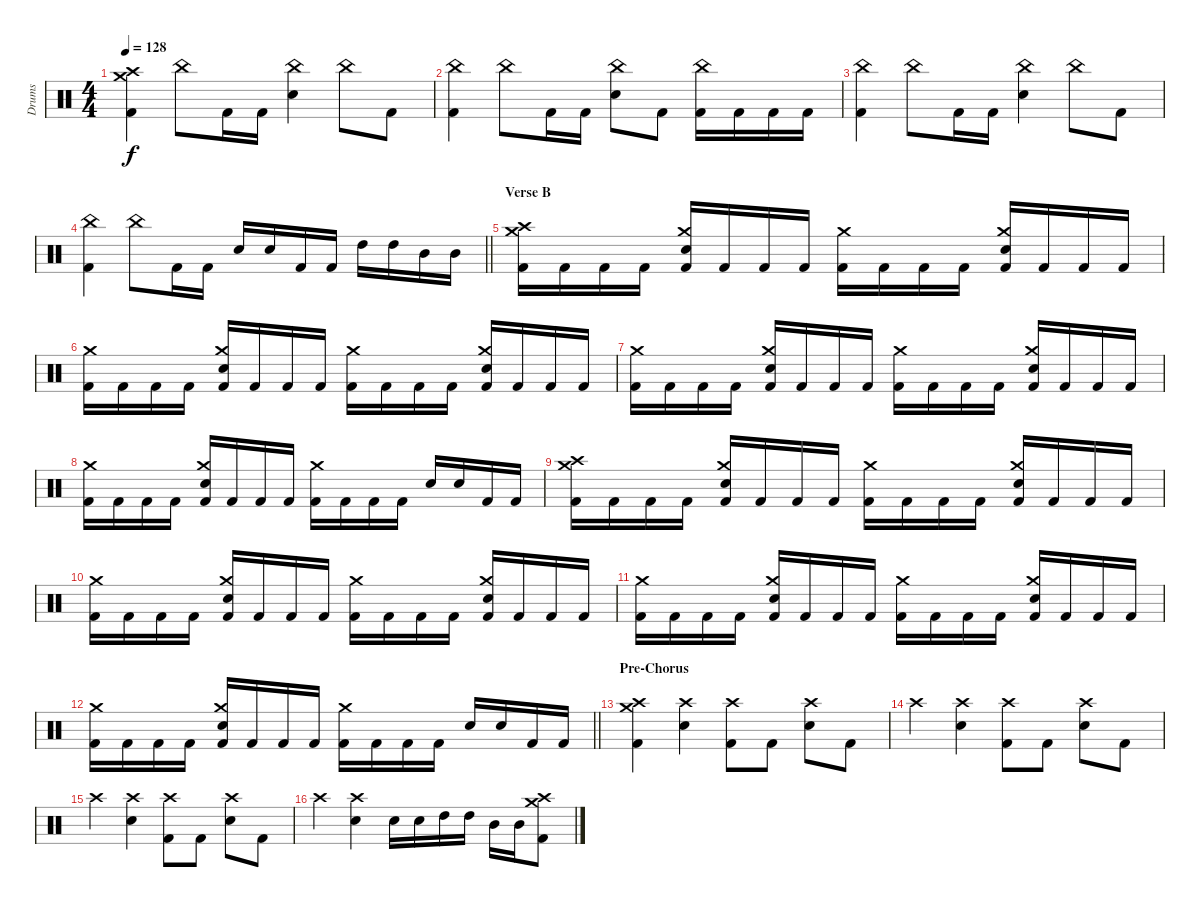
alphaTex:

\track ("Drums" "Drums") {instrument percussion}
\staff {score}
\articulation defaults
\ts (4 4)
\tempo 128
\clef neutral
\ks c
("Kick (hit) 2" "Crash high (hit)" "Crash medium (hit)").4{dy f} "China (hit)".8 "Kick (hit) 2".16 "Kick (hit) 2".16 ("Snare (hit) 2" "China (hit)").4 "China (hit)".8 "Kick (hit) 2".8 |
("Kick (hit) 2" "China (hit)").4 "China (hit)".8 "Kick (hit) 2".16 "Kick (hit) 2".16 ("Snare (hit) 2" "China (hit)").8 "Kick (hit) 2".8 ("Kick (hit) 2" "China (hit)").16 "Kick (hit) 2".16 "Kick (hit) 2".16 "Kick (hit) 2".16 |
("Kick (hit) 2" "China (hit)").4 "China (hit)".8 "Kick (hit) 2".16 "Kick (hit) 2".16 ("Snare (hit) 2" "China (hit)").4 "China (hit)".8 "Kick (hit) 2".8 |
\barLineRight lightlight
("Kick (hit) 2" "China (hit)").4 "China (hit)".8 "Kick (hit) 2".16 "Kick (hit) 2".16 "Snare (hit) 2".16 "Snare (hit) 2".16 "Kick (hit) 2".16 "Kick (hit) 2".16 "High Tom (hit)".16 "High Tom (hit)".16 "Mid Tom (hit)".16 "Mid Tom (hit)".16 |
\section ("" "Verse B")
("Kick (hit) 2" "Crash high (hit)" "Crash medium (hit)").16 "Kick (hit) 2".16 "Kick (hit) 2".16 "Kick (hit) 2".16 ("Kick (hit) 2" "Snare (hit) 2" "Crash medium (hit)").16 "Kick (hit) 2".16 "Kick (hit) 2".16 "Kick (hit) 2".16 ("Kick (hit) 2" "Crash medium (hit)").16 "Kick (hit) 2".16 "Kick (hit) 2".16 "Kick (hit) 2".16 ("Kick (hit) 2" "Snare (hit) 2" "Crash medium (hit)").16 "Kick (hit) 2".16 "Kick (hit) 2".16 "Kick (hit) 2".16 |
("Kick (hit) 2" "Crash medium (hit)").16 "Kick (hit) 2".16 "Kick (hit) 2".16 "Kick (hit) 2".16 ("Kick (hit) 2" "Snare (hit) 2" "Crash medium (hit)").16 "Kick (hit) 2".16 "Kick (hit) 2".16 "Kick (hit) 2".16 ("Kick (hit) 2" "Crash medium (hit)").16 "Kick (hit) 2".16 "Kick (hit) 2".16 "Kick (hit) 2".16 ("Kick (hit) 2" "Snare (hit) 2" "Crash medium (hit)").16 "Kick (hit) 2".16 "Kick (hit) 2".16 "Kick (hit) 2".16 |
("Kick (hit) 2" "Crash medium (hit)").16 "Kick (hit) 2".16 "Kick (hit) 2".16 "Kick (hit) 2".16 ("Kick (hit) 2" "Snare (hit) 2" "Crash medium (hit)").16 "Kick (hit) 2".16 "Kick (hit) 2".16 "Kick (hit) 2".16 ("Kick (hit) 2" "Crash medium (hit)").16 "Kick (hit) 2".16 "Kick (hit) 2".16 "Kick (hit) 2".16 ("Kick (hit) 2" "Snare (hit) 2" "Crash medium (hit)").16 "Kick (hit) 2".16 "Kick (hit) 2".16 "Kick (hit) 2".16 |
("Kick (hit) 2" "Crash medium (hit)").16 "Kick (hit) 2".16 "Kick (hit) 2".16 "Kick (hit) 2".16 ("Kick (hit) 2" "Snare (hit) 2" "Crash medium (hit)").16 "Kick (hit) 2".16 "Kick (hit) 2".16 "Kick (hit) 2".16 ("Kick (hit) 2" "Crash medium (hit)").16 "Kick (hit) 2".16 "Kick (hit) 2".16 "Kick (hit) 2".16 "Snare (hit) 2".16 "Snare (hit) 2".16 "Kick (hit) 2".16 "Kick (hit) 2".16 |
("Kick (hit) 2" "Crash high (hit)" "Crash medium (hit)").16 "Kick (hit) 2".16 "Kick (hit) 2".16 "Kick (hit) 2".16 ("Kick (hit) 2" "Snare (hit) 2" "Crash medium (hit)").16 "Kick (hit) 2".16 "Kick (hit) 2".16 "Kick (hit) 2".16 ("Kick (hit) 2" "Crash medium (hit)").16 "Kick (hit) 2".16 "Kick (hit) 2".16 "Kick (hit) 2".16 ("Kick (hit) 2" "Snare (hit) 2" "Crash medium (hit)").16 "Kick (hit) 2".16 "Kick (hit) 2".16 "Kick (hit) 2".16 |
("Kick (hit) 2" "Crash medium (hit)").16 "Kick (hit) 2".16 "Kick (hit) 2".16 "Kick (hit) 2".16 ("Kick (hit) 2" "Snare (hit) 2" "Crash medium (hit)").16 "Kick (hit) 2".16 "Kick (hit) 2".16 "Kick (hit) 2".16 ("Kick (hit) 2" "Crash medium (hit)").16 "Kick (hit) 2".16 "Kick (hit) 2".16 "Kick (hit) 2".16 ("Kick (hit) 2" "Snare (hit) 2" "Crash medium (hit)").16 "Kick (hit) 2".16 "Kick (hit) 2".16 "Kick (hit) 2".16 |
("Kick (hit) 2" "Crash medium (hit)").16 "Kick (hit) 2".16 "Kick (hit) 2".16 "Kick (hit) 2".16 ("Kick (hit) 2" "Snare (hit) 2" "Crash medium (hit)").16 "Kick (hit) 2".16 "Kick (hit) 2".16 "Kick (hit) 2".16 ("Kick (hit) 2" "Crash medium (hit)").16 "Kick (hit) 2".16 "Kick (hit) 2".16 "Kick (hit) 2".16 ("Kick (hit) 2" "Snare (hit) 2" "Crash medium (hit)").16 "Kick (hit) 2".16 "Kick (hit) 2".16 "Kick (hit) 2".16 |
\barLineRight lightlight
("Kick (hit) 2" "Crash medium (hit)").16 "Kick (hit) 2".16 "Kick (hit) 2".16 "Kick (hit) 2".16 ("Kick (hit) 2" "Snare (hit) 2" "Crash medium (hit)").16 "Kick (hit) 2".16 "Kick (hit) 2".16 "Kick (hit) 2".16 ("Kick (hit) 2" "Crash medium (hit)").16 "Kick (hit) 2".16 "Kick (hit) 2".16 "Kick (hit) 2".16 "Snare (hit) 2".16 "Snare (hit) 2".16 "Kick (hit) 2".16 "Kick (hit) 2".16 |
\section ("" "Pre-Chorus")
("Kick (hit) 2" "Crash high (hit)" "Crash medium (hit)").4 ("Snare (hit) 2" "Crash high (hit)").4 ("Kick (hit) 2" "Crash high (hit)").8 "Kick (hit) 2".8 ("Snare (hit) 2" "Crash high (hit)").8 "Kick (hit) 2".8 |
"Crash high (hit)".4 ("Snare (hit) 2" "Crash high (hit)").4 ("Kick (hit) 2" "Crash high (hit)").8 "Kick (hit) 2".8 ("Snare (hit) 2" "Crash high (hit)").8 "Kick (hit) 2".8 |
"Crash high (hit)".4 ("Snare (hit) 2" "Crash high (hit)").4 ("Kick (hit) 2" "Crash high (hit)").8 "Kick (hit) 2".8 ("Snare (hit) 2" "Crash high (hit)").8 "Kick (hit) 2".8 |
"Crash high (hit)".4 ("Snare (hit) 2" "Crash high (hit)").4 "Snare (hit) 2".16 "Snare (hit) 2".16 "High Tom (hit)".16 "High Tom (hit)".16 "Mid Tom (hit)".16 "Mid Tom (hit)".16 ("Kick (hit) 2" "Crash medium (hit)" "Crash high (hit)").8
